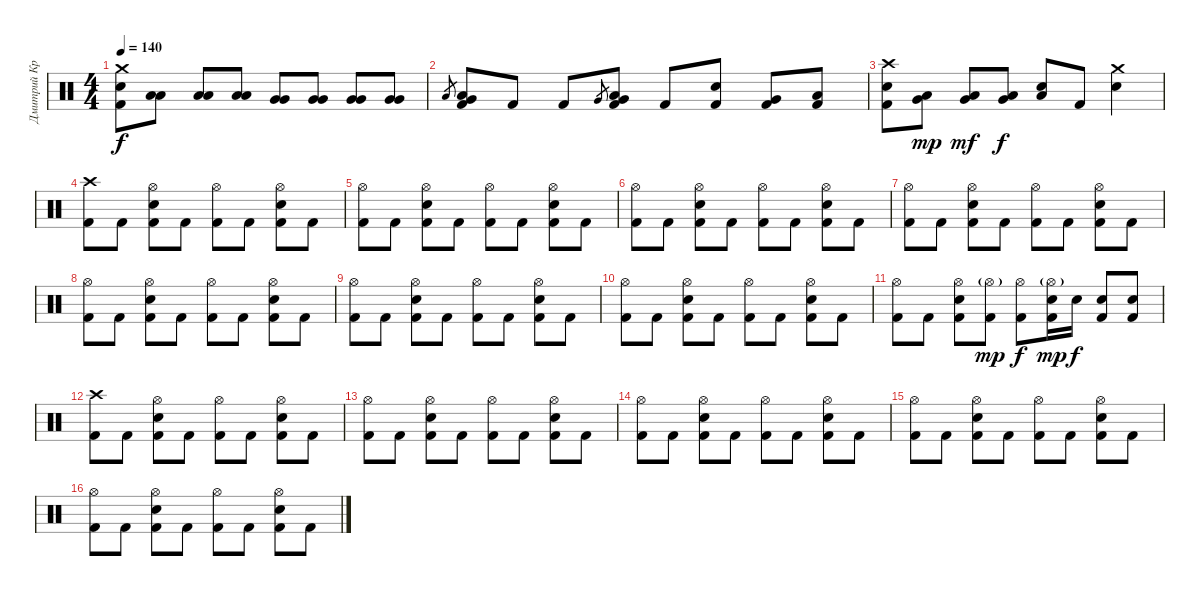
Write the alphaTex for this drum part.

\track ("Дмитрий Кривенков" "Дмитрий Кр") {instrument percussion}
\staff {score}
\articulation defaults
\ts (4 4)
\tempo 140
\clef neutral
\ks c
("Crash medium (hit)" "Electric Snare (hit)" "Kick (hit) 2").8{dy f} ("Low Tom (hit)" "Low Tom (hit)").8 ("Low Tom (hit)" "Low Tom (hit)").8 ("Low Tom (hit)" "Low Tom (hit)").8 ("Very Low Tom (hit)" "Very Low Tom (hit)").8 ("Very Low Tom (hit)" "Very Low Tom (hit)").8 ("Very Low Tom (hit)" "Very Low Tom (hit)").8 ("Very Low Tom (hit)" "Very Low Tom (hit)").8 |
"Low Tom (hit)".8{gr} ("Low Tom (hit)" "Very Low Tom (hit)" "Kick (hit) 2").8 "Kick (hit) 2".8 "Kick (hit) 2".8 "Very Low Tom (hit)".8{gr} ("Very Low Tom (hit)" "Low Floor Tom (hit)" "Kick (hit) 2").8 "Kick (hit) 2".8 ("Electric Snare (hit)" "Kick (hit) 2").8 ("Very Low Tom (hit)" "Kick (hit) 2").8 ("Low Floor Tom (hit)" "Kick (hit) 2").8 |
("Crash high (hit)" "Electric Snare (hit)" "Kick (hit) 2").8 ("Very Low Tom (hit)" "Low Floor Tom (hit)").8{dy mp} ("Very Low Tom (hit)" "Low Floor Tom (hit)").8{dy mf} ("Very Low Tom (hit)" "Low Floor Tom (hit)").8{dy f} ("Electric Snare (hit)" "Low Floor Tom (hit)").8 "Kick (hit) 2".8 ("Crash medium (hit)" "Electric Snare (hit)").4 |
("Crash high (hit)" "Kick (hit) 2").8 "Kick (hit) 2".8 ("Hi-Hat (open)" "Electric Snare (hit)" "Kick (hit) 2").8 "Kick (hit) 2".8 ("Hi-Hat (open)" "Kick (hit) 2").8 "Kick (hit) 2".8 ("Hi-Hat (open)" "Electric Snare (hit)" "Kick (hit) 2").8 "Kick (hit) 2".8 |
("Hi-Hat (open)" "Kick (hit) 2").8 "Kick (hit) 2".8 ("Hi-Hat (open)" "Electric Snare (hit)" "Kick (hit) 2").8 "Kick (hit) 2".8 ("Hi-Hat (open)" "Kick (hit) 2").8 "Kick (hit) 2".8 ("Hi-Hat (open)" "Electric Snare (hit)" "Kick (hit) 2").8 "Kick (hit) 2".8 |
("Hi-Hat (open)" "Kick (hit) 2").8 "Kick (hit) 2".8 ("Hi-Hat (open)" "Electric Snare (hit)" "Kick (hit) 2").8 "Kick (hit) 2".8 ("Hi-Hat (open)" "Kick (hit) 2").8 "Kick (hit) 2".8 ("Hi-Hat (open)" "Electric Snare (hit)" "Kick (hit) 2").8 "Kick (hit) 2".8 |
("Hi-Hat (open)" "Kick (hit) 2").8 "Kick (hit) 2".8 ("Hi-Hat (open)" "Electric Snare (hit)" "Kick (hit) 2").8 "Kick (hit) 2".8 ("Hi-Hat (open)" "Kick (hit) 2").8 "Kick (hit) 2".8 ("Hi-Hat (open)" "Electric Snare (hit)" "Kick (hit) 2").8 "Kick (hit) 2".8 |
("Hi-Hat (open)" "Kick (hit) 2").8 "Kick (hit) 2".8 ("Hi-Hat (open)" "Electric Snare (hit)" "Kick (hit) 2").8 "Kick (hit) 2".8 ("Hi-Hat (open)" "Kick (hit) 2").8 "Kick (hit) 2".8 ("Hi-Hat (open)" "Electric Snare (hit)" "Kick (hit) 2").8 "Kick (hit) 2".8 |
("Hi-Hat (open)" "Kick (hit) 2").8 "Kick (hit) 2".8 ("Hi-Hat (open)" "Electric Snare (hit)" "Kick (hit) 2").8 "Kick (hit) 2".8 ("Hi-Hat (open)" "Kick (hit) 2").8 "Kick (hit) 2".8 ("Hi-Hat (open)" "Electric Snare (hit)" "Kick (hit) 2").8 "Kick (hit) 2".8 |
("Hi-Hat (open)" "Kick (hit) 2").8 "Kick (hit) 2".8 ("Hi-Hat (open)" "Electric Snare (hit)" "Kick (hit) 2").8 "Kick (hit) 2".8 ("Hi-Hat (open)" "Kick (hit) 2").8 "Kick (hit) 2".8 ("Hi-Hat (open)" "Electric Snare (hit)" "Kick (hit) 2").8 "Kick (hit) 2".8 |
("Hi-Hat (open)" "Kick (hit) 2").8 "Kick (hit) 2".8 ("Hi-Hat (open)" "Electric Snare (hit)" "Kick (hit) 2").8 ("Hi-Hat (open)"{g} "Kick (hit) 2").8{dy mp} ("Hi-Hat (open)" "Kick (hit) 2").8{dy f} ("Hi-Hat (open)"{g} "Electric Snare (hit)" "Kick (hit) 2").16{dy mp} "Electric Snare (hit)".16{dy f} ("Electric Snare (hit)" "Kick (hit) 2").8 ("Electric Snare (hit)" "Kick (hit) 2").8 |
("Crash high (hit)" "Kick (hit) 2").8 "Kick (hit) 2".8 ("Hi-Hat (open)" "Electric Snare (hit)" "Kick (hit) 2").8 "Kick (hit) 2".8 ("Hi-Hat (open)" "Kick (hit) 2").8 "Kick (hit) 2".8 ("Hi-Hat (open)" "Electric Snare (hit)" "Kick (hit) 2").8 "Kick (hit) 2".8 |
("Hi-Hat (open)" "Kick (hit) 2").8 "Kick (hit) 2".8 ("Hi-Hat (open)" "Electric Snare (hit)" "Kick (hit) 2").8 "Kick (hit) 2".8 ("Hi-Hat (open)" "Kick (hit) 2").8 "Kick (hit) 2".8 ("Hi-Hat (open)" "Electric Snare (hit)" "Kick (hit) 2").8 "Kick (hit) 2".8 |
("Hi-Hat (open)" "Kick (hit) 2").8 "Kick (hit) 2".8 ("Hi-Hat (open)" "Electric Snare (hit)" "Kick (hit) 2").8 "Kick (hit) 2".8 ("Hi-Hat (open)" "Kick (hit) 2").8 "Kick (hit) 2".8 ("Hi-Hat (open)" "Electric Snare (hit)" "Kick (hit) 2").8 "Kick (hit) 2".8 |
("Hi-Hat (open)" "Kick (hit) 2").8 "Kick (hit) 2".8 ("Hi-Hat (open)" "Electric Snare (hit)" "Kick (hit) 2").8 "Kick (hit) 2".8 ("Hi-Hat (open)" "Kick (hit) 2").8 "Kick (hit) 2".8 ("Hi-Hat (open)" "Electric Snare (hit)" "Kick (hit) 2").8 "Kick (hit) 2".8 |
("Hi-Hat (open)" "Kick (hit) 2").8 "Kick (hit) 2".8 ("Hi-Hat (open)" "Electric Snare (hit)" "Kick (hit) 2").8 "Kick (hit) 2".8 ("Hi-Hat (open)" "Kick (hit) 2").8 "Kick (hit) 2".8 ("Hi-Hat (open)" "Electric Snare (hit)" "Kick (hit) 2").8 "Kick (hit) 2".8
